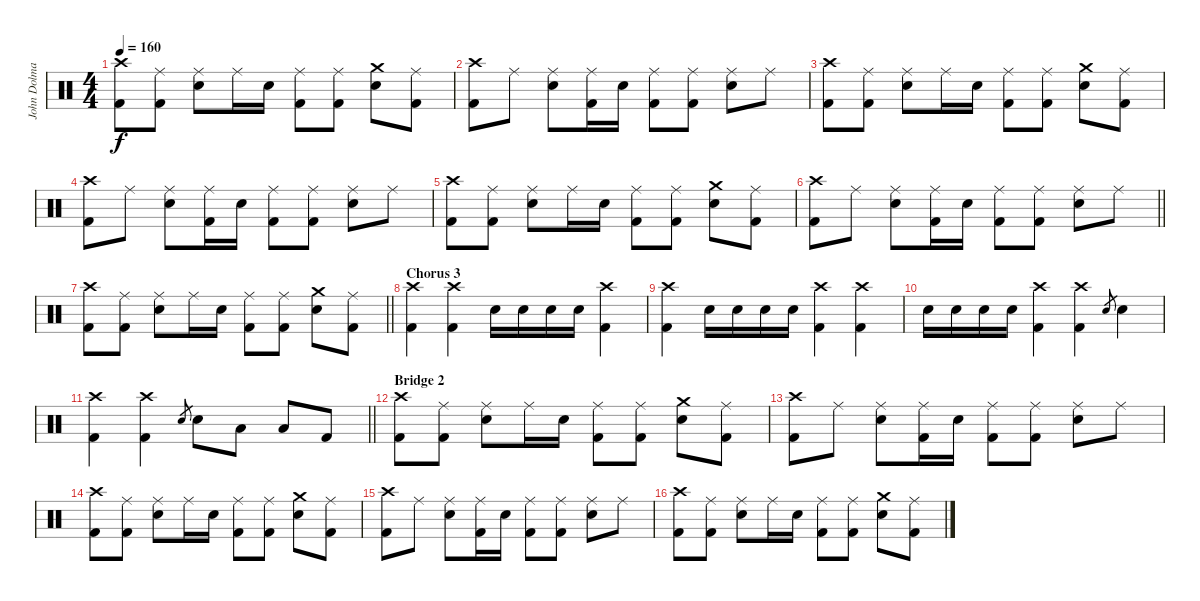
\track ("John Dolmayan(Drums)" "John Dolma") {instrument percussion}
\staff {score}
\articulation defaults
\ts (4 4)
\tempo 160
\clef neutral
\ks c
("Crash high (hit)" "Kick (hit) 2").8{dy f} ("Ride (middle)" "Kick (hit) 2").8 ("Ride (middle)" "Snare (hit) 2").8 "Ride (middle)".16 "Snare (hit) 2".16 ("Ride (middle)" "Kick (hit) 2").8 ("Ride (middle)" "Kick (hit) 2").8 ("Crash medium (hit)" "Snare (hit) 2").8 ("Ride (middle)" "Kick (hit) 2").8 |
("Crash high (hit)" "Kick (hit) 2").8 "Ride (middle)".8 ("Ride (middle)" "Snare (hit) 2").8 ("Ride (middle)" "Kick (hit) 2").16 "Snare (hit) 2".16 ("Ride (middle)" "Kick (hit) 2").8 ("Ride (middle)" "Kick (hit) 2").8 ("Ride (middle)" "Snare (hit) 2").8 "Ride (middle)".8 |
("Crash high (hit)" "Kick (hit) 2").8 ("Ride (middle)" "Kick (hit) 2").8 ("Ride (middle)" "Snare (hit) 2").8 "Ride (middle)".16 "Snare (hit) 2".16 ("Ride (middle)" "Kick (hit) 2").8 ("Ride (middle)" "Kick (hit) 2").8 ("Crash medium (hit)" "Snare (hit) 2").8 ("Ride (middle)" "Kick (hit) 2").8 |
("Crash high (hit)" "Kick (hit) 2").8 "Ride (middle)".8 ("Ride (middle)" "Snare (hit) 2").8 ("Ride (middle)" "Kick (hit) 2").16 "Snare (hit) 2".16 ("Ride (middle)" "Kick (hit) 2").8 ("Ride (middle)" "Kick (hit) 2").8 ("Ride (middle)" "Snare (hit) 2").8 "Ride (middle)".8 |
("Crash high (hit)" "Kick (hit) 2").8 ("Ride (middle)" "Kick (hit) 2").8 ("Ride (middle)" "Snare (hit) 2").8 "Ride (middle)".16 "Snare (hit) 2".16 ("Ride (middle)" "Kick (hit) 2").8 ("Ride (middle)" "Kick (hit) 2").8 ("Crash medium (hit)" "Snare (hit) 2").8 ("Ride (middle)" "Kick (hit) 2").8 |
\barLineRight lightlight
("Crash high (hit)" "Kick (hit) 2").8 "Ride (middle)".8 ("Ride (middle)" "Snare (hit) 2").8 ("Ride (middle)" "Kick (hit) 2").16 "Snare (hit) 2".16 ("Ride (middle)" "Kick (hit) 2").8 ("Ride (middle)" "Kick (hit) 2").8 ("Ride (middle)" "Snare (hit) 2").8 "Ride (middle)".8 |
\barLineRight lightlight
("Crash high (hit)" "Kick (hit) 2").8 ("Ride (middle)" "Kick (hit) 2").8 ("Ride (middle)" "Snare (hit) 2").8 "Ride (middle)".16 "Snare (hit) 2".16 ("Ride (middle)" "Kick (hit) 2").8 ("Ride (middle)" "Kick (hit) 2").8 ("Crash medium (hit)" "Snare (hit) 2").8 ("Ride (middle)" "Kick (hit) 2").8 |
\section ("" "Chorus 3")
("Crash high (hit)" "Kick (hit) 2").4 ("Crash high (hit)" "Kick (hit) 2").4 "Snare (hit) 2".16 "Snare (hit) 2".16 "Snare (hit) 2".16 "Snare (hit) 2".16 ("Crash high (hit)" "Kick (hit) 2").4 |
("Crash high (hit)" "Kick (hit) 2").4 "Snare (hit) 2".16 "Snare (hit) 2".16 "Snare (hit) 2".16 "Snare (hit) 2".16 ("Crash high (hit)" "Kick (hit) 2").4 ("Crash high (hit)" "Kick (hit) 2").4 |
"Snare (hit) 2".16 "Snare (hit) 2".16 "Snare (hit) 2".16 "Snare (hit) 2".16 ("Crash high (hit)" "Kick (hit) 2").4 ("Crash high (hit)" "Kick (hit) 2").4 "Snare (hit) 2".8{gr} "Snare (hit) 2".4 |
\barLineRight lightlight
("Crash high (hit)" "Kick (hit) 2").4 ("Crash high (hit)" "Kick (hit) 2").4 "Snare (hit) 2".8{gr} "Snare (hit) 2".8 "Low Tom (hit)".8 "Low Tom (hit)".8 "Kick (hit) 2".8 |
\section ("" "Bridge 2")
("Crash high (hit)" "Kick (hit) 2").8 ("Ride (middle)" "Kick (hit) 2").8 ("Ride (middle)" "Snare (hit) 2").8 "Ride (middle)".16 "Snare (hit) 2".16 ("Ride (middle)" "Kick (hit) 2").8 ("Ride (middle)" "Kick (hit) 2").8 ("Crash medium (hit)" "Snare (hit) 2").8 ("Ride (middle)" "Kick (hit) 2").8 |
("Crash high (hit)" "Kick (hit) 2").8 "Ride (middle)".8 ("Ride (middle)" "Snare (hit) 2").8 ("Ride (middle)" "Kick (hit) 2").16 "Snare (hit) 2".16 ("Ride (middle)" "Kick (hit) 2").8 ("Ride (middle)" "Kick (hit) 2").8 ("Ride (middle)" "Snare (hit) 2").8 "Ride (middle)".8 |
("Crash high (hit)" "Kick (hit) 2").8 ("Ride (middle)" "Kick (hit) 2").8 ("Ride (middle)" "Snare (hit) 2").8 "Ride (middle)".16 "Snare (hit) 2".16 ("Ride (middle)" "Kick (hit) 2").8 ("Ride (middle)" "Kick (hit) 2").8 ("Crash medium (hit)" "Snare (hit) 2").8 ("Ride (middle)" "Kick (hit) 2").8 |
("Crash high (hit)" "Kick (hit) 2").8 "Ride (middle)".8 ("Ride (middle)" "Snare (hit) 2").8 ("Ride (middle)" "Kick (hit) 2").16 "Snare (hit) 2".16 ("Ride (middle)" "Kick (hit) 2").8 ("Ride (middle)" "Kick (hit) 2").8 ("Ride (middle)" "Snare (hit) 2").8 "Ride (middle)".8 |
("Crash high (hit)" "Kick (hit) 2").8 ("Ride (middle)" "Kick (hit) 2").8 ("Ride (middle)" "Snare (hit) 2").8 "Ride (middle)".16 "Snare (hit) 2".16 ("Ride (middle)" "Kick (hit) 2").8 ("Ride (middle)" "Kick (hit) 2").8 ("Crash medium (hit)" "Snare (hit) 2").8 ("Ride (middle)" "Kick (hit) 2").8
